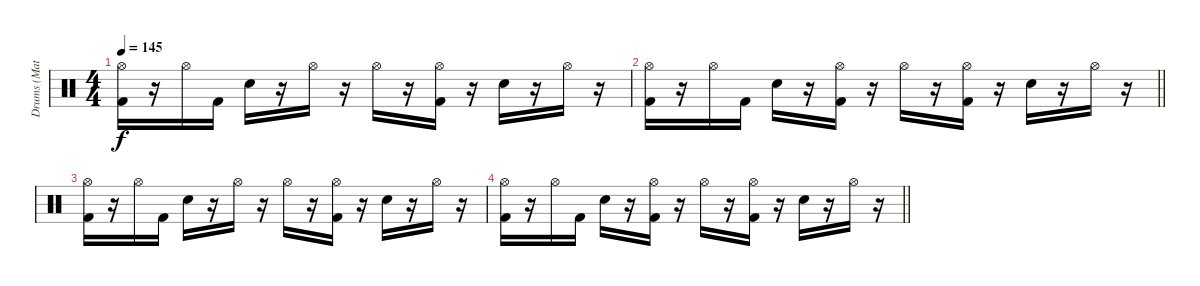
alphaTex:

\track ("Drums (Matt)" "Drums (Mat") {instrument percussion}
\staff {score}
\articulation defaults
\ts (4 4)
\tempo 145
\clef neutral
\ks c
("Hi-Hat (open)" "Kick (hit) 2").16{dy f} r.16 "Hi-Hat (open)".16 "Kick (hit) 2".16 "Electric Snare (hit)".16 r.16 "Hi-Hat (open)".16 r.16 "Hi-Hat (open)".16 r.16 ("Hi-Hat (open)" "Kick (hit) 2").16 r.16 "Electric Snare (hit)".16 r.16 "Hi-Hat (open)".16 r.16 |
\barLineRight lightlight
("Hi-Hat (open)" "Kick (hit) 2").16 r.16 "Hi-Hat (open)".16 "Kick (hit) 2".16 "Electric Snare (hit)".16 r.16 ("Hi-Hat (open)" "Kick (hit) 2").16 r.16 "Hi-Hat (open)".16 r.16 ("Hi-Hat (open)" "Kick (hit) 2").16 r.16 "Electric Snare (hit)".16 r.16 "Hi-Hat (open)".16 r.16 |
("Hi-Hat (open)" "Kick (hit) 2").16 r.16 "Hi-Hat (open)".16 "Kick (hit) 2".16 "Electric Snare (hit)".16 r.16 "Hi-Hat (open)".16 r.16 "Hi-Hat (open)".16 r.16 ("Hi-Hat (open)" "Kick (hit) 2").16 r.16 "Electric Snare (hit)".16 r.16 "Hi-Hat (open)".16 r.16 |
\barLineRight lightlight
("Hi-Hat (open)" "Kick (hit) 2").16 r.16 "Hi-Hat (open)".16 "Kick (hit) 2".16 "Electric Snare (hit)".16 r.16 ("Hi-Hat (open)" "Kick (hit) 2").16 r.16 "Hi-Hat (open)".16 r.16 ("Hi-Hat (open)" "Kick (hit) 2").16 r.16 "Electric Snare (hit)".16 r.16 "Hi-Hat (open)".16 r.16
